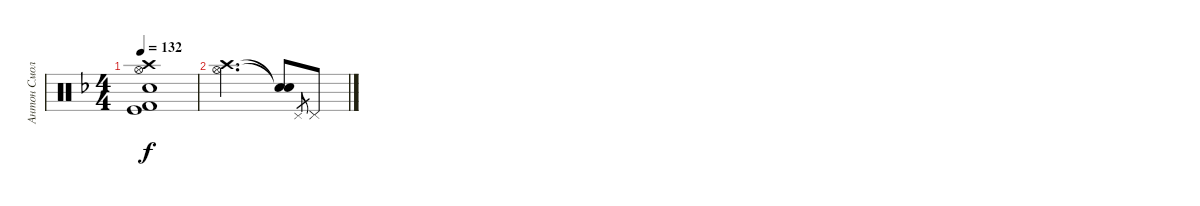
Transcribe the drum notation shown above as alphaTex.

\track ("Антон Смольянин" "Антон Смол") {instrument percussion}
\staff {score}
\articulation defaults
\ts (4 4)
\tempo 132
\clef neutral
\ks f
("Kick (hit) 2" "Kick (hit)" "Snare (hit) 2" "Crash high (hit)" "Hi-Hat (open)").1{dy f} |
("Crash high (hit)" "Hi-Hat (open)").2{d} ("Snare (hit)"{t} "Snare (hit)"{t}).8 "Pedal Hi-Hat (hit)".8{gr} "Pedal Hi-Hat (hit)".8
